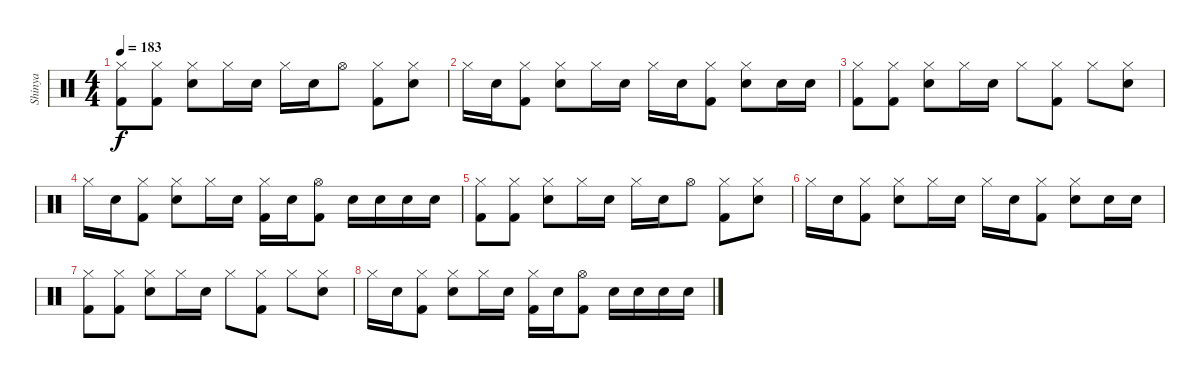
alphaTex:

\track ("Shinya" "Shinya") {instrument percussion}
\staff {score}
\articulation defaults
\ts (4 4)
\tempo 183
\clef neutral
\ks c
("Hi-Hat (closed)" "Kick (hit) 2").8{dy f} ("Hi-Hat (closed)" "Kick (hit) 2").8 ("Hi-Hat (closed)" "Snare (hit) 2").8 "Hi-Hat (closed)".16 "Snare (hit) 2".16 "Hi-Hat (closed)".16 "Snare (hit) 2".16 "Hi-Hat (open)".8 ("Hi-Hat (closed)" "Kick (hit) 2").8 ("Hi-Hat (closed)" "Snare (hit) 2").8 |
"Hi-Hat (closed)".16 "Snare (hit) 2".16 ("Hi-Hat (closed)" "Kick (hit) 2").8 ("Hi-Hat (closed)" "Snare (hit) 2").8 "Hi-Hat (closed)".16{volume 10} "Snare (hit) 2".16 "Hi-Hat (closed)".16 "Snare (hit) 2".16 ("Hi-Hat (closed)" "Kick (hit) 2").8 ("Hi-Hat (closed)" "Snare (hit) 2").8 "Snare (hit) 2".16 "Snare (hit) 2".16 |
("Hi-Hat (closed)" "Kick (hit) 2").8 ("Hi-Hat (closed)" "Kick (hit) 2").8 ("Hi-Hat (closed)" "Snare (hit) 2").8 "Hi-Hat (closed)".16 "Snare (hit) 2".16{volume 9} "Hi-Hat (closed)".8 ("Hi-Hat (closed)" "Kick (hit) 2").8 "Hi-Hat (closed)".8 ("Hi-Hat (closed)" "Snare (hit) 2").8 |
"Hi-Hat (closed)".16{volume 8} "Snare (hit) 2".16 ("Hi-Hat (closed)" "Kick (hit) 2").8 ("Hi-Hat (closed)" "Snare (hit) 2").8 "Hi-Hat (closed)".16 "Snare (hit) 2".16 ("Hi-Hat (closed)" "Kick (hit) 2").16 "Snare (hit) 2".16 ("Hi-Hat (open)" "Kick (hit) 2").8 "Snare (hit) 2".16 "Snare (hit) 2".16 "Snare (hit) 2".16 "Snare (hit) 2".16 |
("Hi-Hat (closed)" "Kick (hit) 2").8{volume 6} ("Hi-Hat (closed)" "Kick (hit) 2").8 ("Hi-Hat (closed)" "Snare (hit) 2").8 "Hi-Hat (closed)".16 "Snare (hit) 2".16 "Hi-Hat (closed)".16 "Snare (hit) 2".16 "Hi-Hat (open)".8 ("Hi-Hat (closed)" "Kick (hit) 2").8 ("Hi-Hat (closed)" "Snare (hit) 2").8 |
"Hi-Hat (closed)".16{volume 3} "Snare (hit) 2".16 ("Hi-Hat (closed)" "Kick (hit) 2").8 ("Hi-Hat (closed)" "Snare (hit) 2").8 "Hi-Hat (closed)".16 "Snare (hit) 2".16 "Hi-Hat (closed)".16 "Snare (hit) 2".16 ("Hi-Hat (closed)" "Kick (hit) 2").8 ("Hi-Hat (closed)" "Snare (hit) 2").8 "Snare (hit) 2".16 "Snare (hit) 2".16 |
("Hi-Hat (closed)" "Kick (hit) 2").8{volume 2} ("Hi-Hat (closed)" "Kick (hit) 2").8 ("Hi-Hat (closed)" "Snare (hit) 2").8 "Hi-Hat (closed)".16 "Snare (hit) 2".16 "Hi-Hat (closed)".8 ("Hi-Hat (closed)" "Kick (hit) 2").8 "Hi-Hat (closed)".8 ("Hi-Hat (closed)" "Snare (hit) 2").8 |
"Hi-Hat (closed)".16{volume 1} "Snare (hit) 2".16 ("Hi-Hat (closed)" "Kick (hit) 2").8 ("Hi-Hat (closed)" "Snare (hit) 2").8 "Hi-Hat (closed)".16 "Snare (hit) 2".16 ("Hi-Hat (closed)" "Kick (hit) 2").16 "Snare (hit) 2".16 ("Hi-Hat (open)" "Kick (hit) 2").8 "Snare (hit) 2".16 "Snare (hit) 2".16 "Snare (hit) 2".16 "Snare (hit) 2".16
